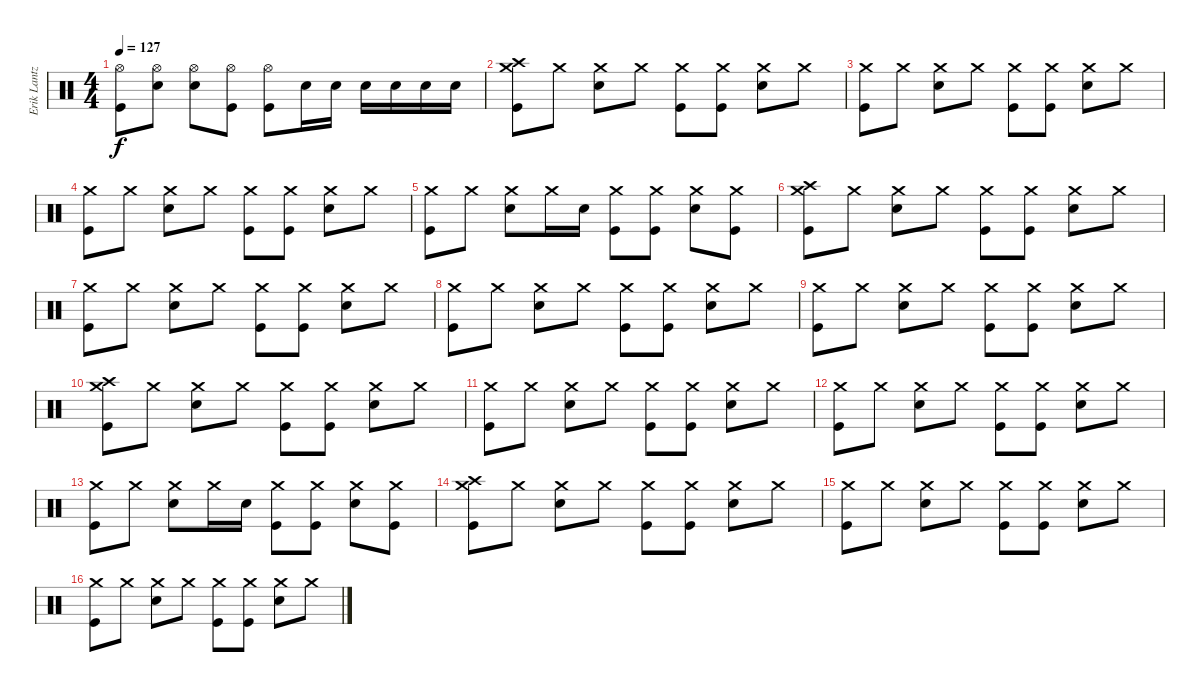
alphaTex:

\track ("Erik Lantz" "Erik Lantz") {instrument percussion}
\staff {score}
\articulation defaults
\ts (4 4)
\tempo 127
\clef neutral
\ks c
("Hi-Hat (open)" "Kick (hit)").8{dy f} ("Hi-Hat (open)" "Electric Snare (hit)").8 ("Hi-Hat (open)" "Electric Snare (hit)").8 ("Hi-Hat (open)" "Kick (hit)").8 ("Hi-Hat (open)" "Kick (hit)").8 "Electric Snare (hit)".16 "Electric Snare (hit)".16 "Electric Snare (hit)".16 "Electric Snare (hit)".16 "Electric Snare (hit)".16 "Electric Snare (hit)".16 |
("Crash high (hit)" "Crash medium (hit)" "Kick (hit)").8 "Crash medium (hit)".8 ("Crash medium (hit)" "Electric Snare (hit)").8 "Crash medium (hit)".8 ("Crash medium (hit)" "Kick (hit)").8 ("Crash medium (hit)" "Kick (hit)").8 ("Crash medium (hit)" "Electric Snare (hit)").8 "Crash medium (hit)".8 |
("Crash medium (hit)" "Kick (hit)").8 "Crash medium (hit)".8 ("Crash medium (hit)" "Electric Snare (hit)").8 "Crash medium (hit)".8 ("Crash medium (hit)" "Kick (hit)").8 ("Crash medium (hit)" "Kick (hit)").8 ("Crash medium (hit)" "Electric Snare (hit)").8 "Crash medium (hit)".8 |
("Crash medium (hit)" "Kick (hit)").8 "Crash medium (hit)".8 ("Crash medium (hit)" "Electric Snare (hit)").8 "Crash medium (hit)".8 ("Crash medium (hit)" "Kick (hit)").8 ("Crash medium (hit)" "Kick (hit)").8 ("Crash medium (hit)" "Electric Snare (hit)").8 "Crash medium (hit)".8 |
("Crash medium (hit)" "Kick (hit)").8 "Crash medium (hit)".8 ("Crash medium (hit)" "Electric Snare (hit)").8 "Crash medium (hit)".16 "Electric Snare (hit)".16 ("Crash medium (hit)" "Kick (hit)").8 ("Crash medium (hit)" "Kick (hit)").8 ("Crash medium (hit)" "Electric Snare (hit)").8 ("Crash medium (hit)" "Kick (hit)").8 |
("Crash high (hit)" "Crash medium (hit)" "Kick (hit)").8 "Crash medium (hit)".8 ("Crash medium (hit)" "Electric Snare (hit)").8 "Crash medium (hit)".8 ("Crash medium (hit)" "Kick (hit)").8 ("Crash medium (hit)" "Kick (hit)").8 ("Crash medium (hit)" "Electric Snare (hit)").8 "Crash medium (hit)".8 |
("Crash medium (hit)" "Kick (hit)").8 "Crash medium (hit)".8 ("Crash medium (hit)" "Electric Snare (hit)").8 "Crash medium (hit)".8 ("Crash medium (hit)" "Kick (hit)").8 ("Crash medium (hit)" "Kick (hit)").8 ("Crash medium (hit)" "Electric Snare (hit)").8 "Crash medium (hit)".8 |
("Crash medium (hit)" "Kick (hit)").8 "Crash medium (hit)".8 ("Crash medium (hit)" "Electric Snare (hit)").8 "Crash medium (hit)".8 ("Crash medium (hit)" "Kick (hit)").8 ("Crash medium (hit)" "Kick (hit)").8 ("Crash medium (hit)" "Electric Snare (hit)").8 "Crash medium (hit)".8 |
("Crash medium (hit)" "Kick (hit)").8 "Crash medium (hit)".8 ("Crash medium (hit)" "Electric Snare (hit)").8 "Crash medium (hit)".8 ("Crash medium (hit)" "Kick (hit)").8 ("Crash medium (hit)" "Kick (hit)").8 ("Crash medium (hit)" "Electric Snare (hit)").8 "Crash medium (hit)".8 |
("Crash high (hit)" "Crash medium (hit)" "Kick (hit)").8 "Crash medium (hit)".8 ("Crash medium (hit)" "Electric Snare (hit)").8 "Crash medium (hit)".8 ("Crash medium (hit)" "Kick (hit)").8 ("Crash medium (hit)" "Kick (hit)").8 ("Crash medium (hit)" "Electric Snare (hit)").8 "Crash medium (hit)".8 |
("Crash medium (hit)" "Kick (hit)").8 "Crash medium (hit)".8 ("Crash medium (hit)" "Electric Snare (hit)").8 "Crash medium (hit)".8 ("Crash medium (hit)" "Kick (hit)").8 ("Crash medium (hit)" "Kick (hit)").8 ("Crash medium (hit)" "Electric Snare (hit)").8 "Crash medium (hit)".8 |
("Crash medium (hit)" "Kick (hit)").8 "Crash medium (hit)".8 ("Crash medium (hit)" "Electric Snare (hit)").8 "Crash medium (hit)".8 ("Crash medium (hit)" "Kick (hit)").8 ("Crash medium (hit)" "Kick (hit)").8 ("Crash medium (hit)" "Electric Snare (hit)").8 "Crash medium (hit)".8 |
("Crash medium (hit)" "Kick (hit)").8 "Crash medium (hit)".8 ("Crash medium (hit)" "Electric Snare (hit)").8 "Crash medium (hit)".16 "Electric Snare (hit)".16 ("Crash medium (hit)" "Kick (hit)").8 ("Crash medium (hit)" "Kick (hit)").8 ("Crash medium (hit)" "Electric Snare (hit)").8 ("Crash medium (hit)" "Kick (hit)").8 |
("Crash high (hit)" "Crash medium (hit)" "Kick (hit)").8 "Crash medium (hit)".8 ("Crash medium (hit)" "Electric Snare (hit)").8 "Crash medium (hit)".8 ("Crash medium (hit)" "Kick (hit)").8 ("Crash medium (hit)" "Kick (hit)").8 ("Crash medium (hit)" "Electric Snare (hit)").8 "Crash medium (hit)".8 |
("Crash medium (hit)" "Kick (hit)").8 "Crash medium (hit)".8 ("Crash medium (hit)" "Electric Snare (hit)").8 "Crash medium (hit)".8 ("Crash medium (hit)" "Kick (hit)").8 ("Crash medium (hit)" "Kick (hit)").8 ("Crash medium (hit)" "Electric Snare (hit)").8 "Crash medium (hit)".8 |
("Crash medium (hit)" "Kick (hit)").8 "Crash medium (hit)".8 ("Crash medium (hit)" "Electric Snare (hit)").8 "Crash medium (hit)".8 ("Crash medium (hit)" "Kick (hit)").8 ("Crash medium (hit)" "Kick (hit)").8 ("Crash medium (hit)" "Electric Snare (hit)").8 "Crash medium (hit)".8
